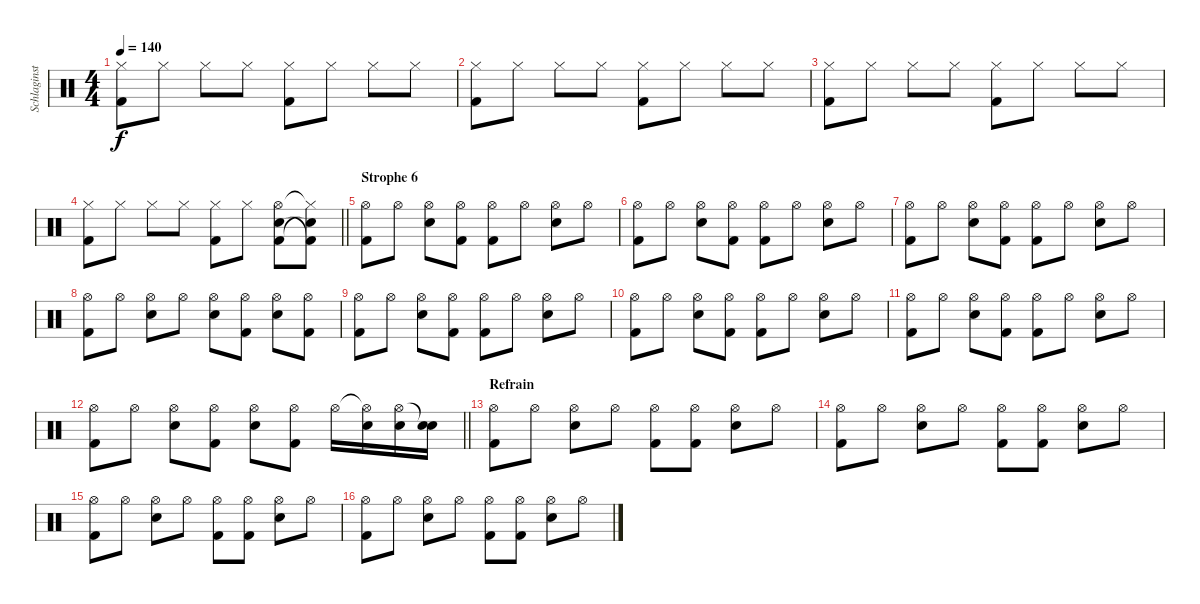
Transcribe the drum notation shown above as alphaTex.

\track ("Schlaginstrumente - Auswahl" "Schlaginst") {instrument percussion}
\staff {score}
\articulation defaults
\ts (4 4)
\tempo 140
\clef neutral
\ks c
("Hi-Hat (closed)" "Kick (hit) 2").8{dy f} "Hi-Hat (closed)".8 "Hi-Hat (closed)".8 "Hi-Hat (closed)".8 ("Hi-Hat (closed)" "Kick (hit) 2").8 "Hi-Hat (closed)".8 "Hi-Hat (closed)".8 "Hi-Hat (closed)".8 |
("Hi-Hat (closed)" "Kick (hit) 2").8 "Hi-Hat (closed)".8 "Hi-Hat (closed)".8 "Hi-Hat (closed)".8 ("Hi-Hat (closed)" "Kick (hit) 2").8 "Hi-Hat (closed)".8 "Hi-Hat (closed)".8 "Hi-Hat (closed)".8 |
("Hi-Hat (closed)" "Kick (hit) 2").8 "Hi-Hat (closed)".8 "Hi-Hat (closed)".8 "Hi-Hat (closed)".8 ("Hi-Hat (closed)" "Kick (hit) 2").8 "Hi-Hat (closed)".8 "Hi-Hat (closed)".8 "Hi-Hat (closed)".8 |
\barLineRight lightlight
("Hi-Hat (closed)" "Kick (hit) 2").8 "Hi-Hat (closed)".8 "Hi-Hat (closed)".8 "Hi-Hat (closed)".8 ("Hi-Hat (closed)" "Kick (hit) 2").8 "Hi-Hat (closed)".8 ("Hi-Hat (open)" "Snare (hit) 2" "Kick (hit) 2").8 ("Hi-Hat (closed)"{t} "Kick (hit) 2"{t} "Snare (hit) 2"{t}).8 |
\section ("" "Strophe 6")
("Hi-Hat (open)" "Kick (hit) 2").8 "Hi-Hat (open)".8 ("Hi-Hat (open)" "Snare (hit) 2").8 ("Hi-Hat (open)" "Kick (hit) 2").8 ("Hi-Hat (open)" "Kick (hit) 2").8 "Hi-Hat (open)".8 ("Hi-Hat (open)" "Snare (hit) 2").8 "Hi-Hat (open)".8 |
("Hi-Hat (open)" "Kick (hit) 2").8 "Hi-Hat (open)".8 ("Hi-Hat (open)" "Snare (hit) 2").8 ("Hi-Hat (open)" "Kick (hit) 2").8 ("Hi-Hat (open)" "Kick (hit) 2").8 "Hi-Hat (open)".8 ("Hi-Hat (open)" "Snare (hit) 2").8 "Hi-Hat (open)".8 |
("Hi-Hat (open)" "Kick (hit) 2").8 "Hi-Hat (open)".8 ("Hi-Hat (open)" "Snare (hit) 2").8 ("Hi-Hat (open)" "Kick (hit) 2").8 ("Hi-Hat (open)" "Kick (hit) 2").8 "Hi-Hat (open)".8 ("Hi-Hat (open)" "Snare (hit) 2").8 "Hi-Hat (open)".8 |
("Hi-Hat (open)" "Kick (hit) 2").8 "Hi-Hat (open)".8 ("Hi-Hat (open)" "Snare (hit) 2").8 "Hi-Hat (open)".8 ("Hi-Hat (open)" "Snare (hit) 2").8 ("Hi-Hat (open)" "Kick (hit) 2").8 ("Hi-Hat (open)" "Snare (hit) 2").8 ("Hi-Hat (open)" "Kick (hit) 2").8 |
("Hi-Hat (open)" "Kick (hit) 2").8 "Hi-Hat (open)".8 ("Hi-Hat (open)" "Snare (hit) 2").8 ("Hi-Hat (open)" "Kick (hit) 2").8 ("Hi-Hat (open)" "Kick (hit) 2").8 "Hi-Hat (open)".8 ("Hi-Hat (open)" "Snare (hit) 2").8 "Hi-Hat (open)".8 |
("Hi-Hat (open)" "Kick (hit) 2").8 "Hi-Hat (open)".8 ("Hi-Hat (open)" "Snare (hit) 2").8 ("Hi-Hat (open)" "Kick (hit) 2").8 ("Hi-Hat (open)" "Kick (hit) 2").8 "Hi-Hat (open)".8 ("Hi-Hat (open)" "Snare (hit) 2").8 "Hi-Hat (open)".8 |
("Hi-Hat (open)" "Kick (hit) 2").8 "Hi-Hat (open)".8 ("Hi-Hat (open)" "Snare (hit) 2").8 ("Hi-Hat (open)" "Kick (hit) 2").8 ("Hi-Hat (open)" "Kick (hit) 2").8 "Hi-Hat (open)".8 ("Hi-Hat (open)" "Snare (hit) 2").8 "Hi-Hat (open)".8 |
\barLineRight lightlight
("Hi-Hat (open)" "Kick (hit) 2").8 "Hi-Hat (open)".8 ("Hi-Hat (open)" "Snare (hit) 2").8 ("Hi-Hat (open)" "Kick (hit) 2").8 ("Hi-Hat (open)" "Snare (hit) 2").8 ("Hi-Hat (open)" "Kick (hit) 2").8 "Hi-Hat (open)".16 ("Hi-Hat (open)"{t} "Snare (hit) 2").16 ("Hi-Hat (open)" "Snare (hit) 2").16 ("Snare (hit)"{t} "Snare (hit) 2").16 |
\section ("" "Refrain")
("Hi-Hat (open)" "Kick (hit) 2").8 "Hi-Hat (open)".8 ("Hi-Hat (open)" "Snare (hit) 2").8 "Hi-Hat (open)".8 ("Hi-Hat (open)" "Kick (hit) 2").8 ("Hi-Hat (open)" "Kick (hit) 2").8 ("Hi-Hat (open)" "Snare (hit) 2").8 "Hi-Hat (open)".8 |
("Hi-Hat (open)" "Kick (hit) 2").8 "Hi-Hat (open)".8 ("Hi-Hat (open)" "Snare (hit) 2").8 "Hi-Hat (open)".8 ("Hi-Hat (open)" "Kick (hit) 2").8 ("Hi-Hat (open)" "Kick (hit) 2").8 ("Hi-Hat (open)" "Snare (hit) 2").8 "Hi-Hat (open)".8 |
("Hi-Hat (open)" "Kick (hit) 2").8 "Hi-Hat (open)".8 ("Hi-Hat (open)" "Snare (hit) 2").8 "Hi-Hat (open)".8 ("Hi-Hat (open)" "Kick (hit) 2").8 ("Hi-Hat (open)" "Kick (hit) 2").8 ("Hi-Hat (open)" "Snare (hit) 2").8 "Hi-Hat (open)".8 |
("Hi-Hat (open)" "Kick (hit) 2").8 "Hi-Hat (open)".8 ("Hi-Hat (open)" "Snare (hit) 2").8 "Hi-Hat (open)".8 ("Hi-Hat (open)" "Kick (hit) 2").8 ("Hi-Hat (open)" "Kick (hit) 2").8 ("Hi-Hat (open)" "Snare (hit) 2").8 "Hi-Hat (open)".8
